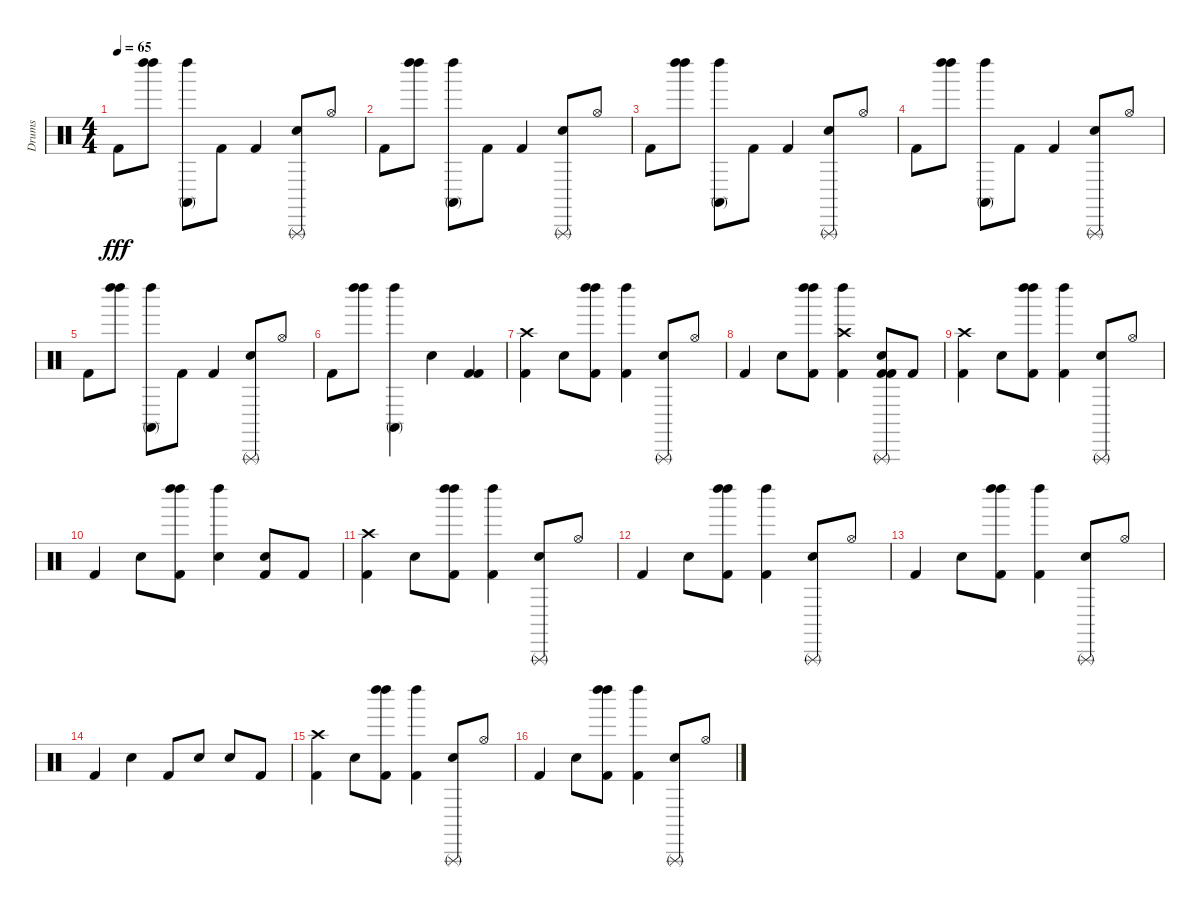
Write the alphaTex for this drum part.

\track ("Drums" "Drums") {instrument percussion}
\staff {score}
\articulation defaults
\ts (4 4)
\tempo 65
\clef neutral
\ks c "Kick (hit) 2".8{dy fff}
("Left Maraca (hit)" "Left Maraca (hit)").8 ("Conga high (mute)" "Left Maraca (hit)").8 "Kick (hit) 2".8 "Kick (hit) 2".4 ("Triangle (rnute)" "Electric Snare (hit)").8 "Hi-Hat (open)".8 |
"Kick (hit) 2".8 ("Left Maraca (hit)" "Left Maraca (hit)").8 ("Conga high (mute)" "Left Maraca (hit)").8 "Kick (hit) 2".8 "Kick (hit) 2".4 ("Triangle (rnute)" "Electric Snare (hit)").8 "Hi-Hat (open)".8 |
"Kick (hit) 2".8 ("Left Maraca (hit)" "Left Maraca (hit)").8 ("Conga high (mute)" "Left Maraca (hit)").8 "Kick (hit) 2".8 "Kick (hit) 2".4 ("Triangle (rnute)" "Electric Snare (hit)").8 "Hi-Hat (open)".8 |
"Kick (hit) 2".8 ("Left Maraca (hit)" "Left Maraca (hit)").8 ("Conga high (mute)" "Left Maraca (hit)").8 "Kick (hit) 2".8 "Kick (hit) 2".4 ("Triangle (rnute)" "Electric Snare (hit)").8 "Hi-Hat (open)".8 |
"Kick (hit) 2".8 ("Left Maraca (hit)" "Left Maraca (hit)").8 ("Conga high (mute)" "Left Maraca (hit)").8 "Kick (hit) 2".8 "Kick (hit) 2".4 ("Triangle (rnute)" "Electric Snare (hit)").8 "Hi-Hat (open)".8 |
"Kick (hit) 2".8 ("Left Maraca (hit)" "Left Maraca (hit)").8 ("Conga high (mute)" "Left Maraca (hit)").4 "Electric Snare (hit)".4 ("Kick (hit) 2" "Kick (hit) 2").4 |
("Kick (hit) 2" "Crash high (hit)").4 "Snare (hit) 2".8 ("Left Maraca (hit)" "Kick (hit) 2" "Left Maraca (hit)").8 ("Kick (hit) 2" "Left Maraca (hit)").4 ("Triangle (rnute)" "Electric Snare (hit)").8 "Hi-Hat (open)".8 |
"Kick (hit) 2".4 "Snare (hit) 2".8 ("Left Maraca (hit)" "Kick (hit) 2" "Left Maraca (hit)").8 ("Kick (hit) 2" "Crash high (hit)" "Left Maraca (hit)").4 ("Kick (hit) 2" "Triangle (rnute)" "Electric Snare (hit)" "Kick (hit) 2").8 "Kick (hit) 2".8 |
("Kick (hit) 2" "Crash high (hit)").4 "Snare (hit) 2".8 ("Left Maraca (hit)" "Kick (hit) 2" "Left Maraca (hit)").8 ("Kick (hit) 2" "Left Maraca (hit)").4 ("Triangle (rnute)" "Electric Snare (hit)").8 "Hi-Hat (open)".8 |
"Kick (hit) 2".4 "Snare (hit) 2".8 ("Left Maraca (hit)" "Kick (hit) 2" "Left Maraca (hit)").8 ("Electric Snare (hit)" "Left Maraca (hit)").4 ("Electric Snare (hit)" "Kick (hit) 2").8 "Kick (hit) 2".8 |
("Kick (hit) 2" "Crash high (hit)").4 "Snare (hit) 2".8 ("Left Maraca (hit)" "Kick (hit) 2" "Left Maraca (hit)").8 ("Kick (hit) 2" "Left Maraca (hit)").4 ("Triangle (rnute)" "Electric Snare (hit)").8 "Hi-Hat (open)".8 |
"Kick (hit) 2".4 "Snare (hit) 2".8 ("Left Maraca (hit)" "Kick (hit) 2" "Left Maraca (hit)").8 ("Kick (hit) 2" "Left Maraca (hit)").4 ("Triangle (rnute)" "Electric Snare (hit)").8 "Hi-Hat (open)".8 |
"Kick (hit) 2".4 "Snare (hit) 2".8 ("Left Maraca (hit)" "Kick (hit) 2" "Left Maraca (hit)").8 ("Kick (hit) 2" "Left Maraca (hit)").4 ("Triangle (rnute)" "Electric Snare (hit)").8 "Hi-Hat (open)".8 |
"Kick (hit) 2".4 "Electric Snare (hit)".4 "Kick (hit) 2".8 "Electric Snare (hit)".8 "Electric Snare (hit)".8 "Kick (hit) 2".8 |
("Kick (hit) 2" "Crash high (hit)").4 "Snare (hit) 2".8 ("Left Maraca (hit)" "Kick (hit) 2" "Left Maraca (hit)").8 ("Kick (hit) 2" "Left Maraca (hit)").4 ("Triangle (rnute)" "Electric Snare (hit)").8 "Hi-Hat (open)".8 |
"Kick (hit) 2".4 "Snare (hit) 2".8 ("Left Maraca (hit)" "Kick (hit) 2" "Left Maraca (hit)").8 ("Kick (hit) 2" "Left Maraca (hit)").4 ("Triangle (rnute)" "Electric Snare (hit)").8 "Hi-Hat (open)".8
